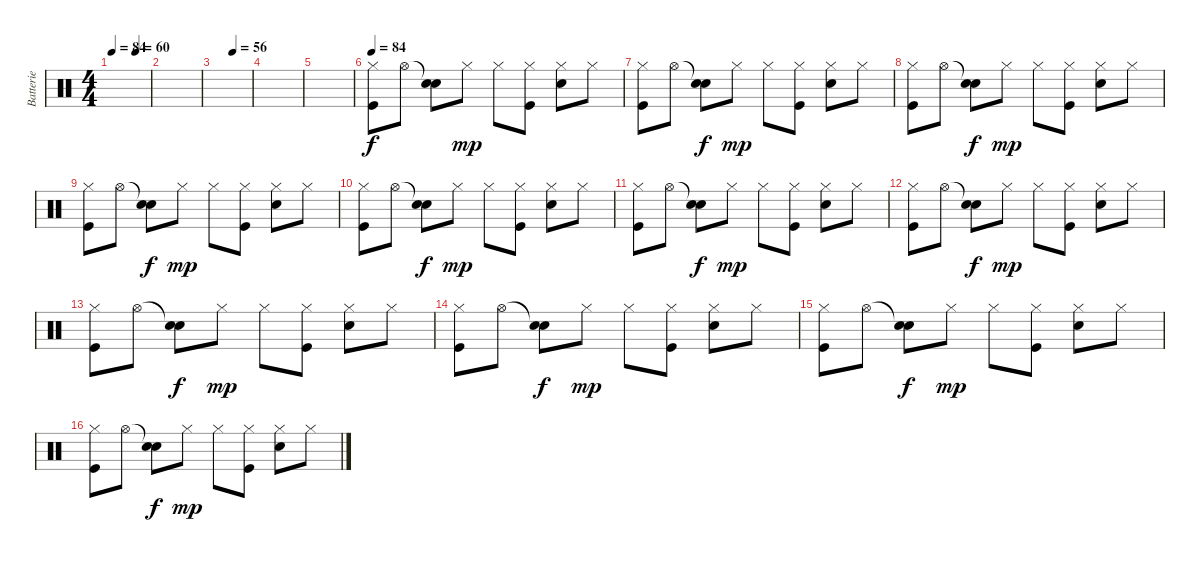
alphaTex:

\track ("Batterie" "Batterie") {instrument percussion}
\staff {score}
\articulation defaults
\ts (4 4)
\tempo 84
\tempo (60 0.625)
\tempo 84
\clef neutral
\ks c
|
|
\tempo (56 0.5)
|
|
|
\tempo 84
("Hi-Hat (closed)" "Kick (hit)").8 "Hi-Hat (open)".8 ("Snare (hit)"{t} "Snare (hit) 2").8{dy f} "Hi-Hat (closed)".8{dy mp} "Hi-Hat (closed)".8 ("Hi-Hat (closed)" "Kick (hit)").8 ("Hi-Hat (closed)" "Snare (hit) 2").8 "Hi-Hat (closed)".8 |
("Hi-Hat (closed)" "Kick (hit)").8 "Hi-Hat (open)".8 ("Snare (hit)"{t} "Snare (hit) 2").8{dy f} "Hi-Hat (closed)".8{dy mp} "Hi-Hat (closed)".8 ("Hi-Hat (closed)" "Kick (hit)").8 ("Hi-Hat (closed)" "Snare (hit) 2").8 "Hi-Hat (closed)".8 |
("Hi-Hat (closed)" "Kick (hit)").8 "Hi-Hat (open)".8 ("Snare (hit)"{t} "Snare (hit) 2").8{dy f} "Hi-Hat (closed)".8{dy mp} "Hi-Hat (closed)".8 ("Hi-Hat (closed)" "Kick (hit)").8 ("Hi-Hat (closed)" "Snare (hit) 2").8 "Hi-Hat (closed)".8 |
("Hi-Hat (closed)" "Kick (hit)").8 "Hi-Hat (open)".8 ("Snare (hit)"{t} "Snare (hit) 2").8{dy f} "Hi-Hat (closed)".8{dy mp} "Hi-Hat (closed)".8 ("Hi-Hat (closed)" "Kick (hit)").8 ("Hi-Hat (closed)" "Snare (hit) 2").8 "Hi-Hat (closed)".8 |
("Hi-Hat (closed)" "Kick (hit)").8 "Hi-Hat (open)".8 ("Snare (hit)"{t} "Snare (hit) 2").8{dy f} "Hi-Hat (closed)".8{dy mp} "Hi-Hat (closed)".8 ("Hi-Hat (closed)" "Kick (hit)").8 ("Hi-Hat (closed)" "Snare (hit) 2").8 "Hi-Hat (closed)".8 |
("Hi-Hat (closed)" "Kick (hit)").8 "Hi-Hat (open)".8 ("Snare (hit)"{t} "Snare (hit) 2").8{dy f} "Hi-Hat (closed)".8{dy mp} "Hi-Hat (closed)".8 ("Hi-Hat (closed)" "Kick (hit)").8 ("Hi-Hat (closed)" "Snare (hit) 2").8 "Hi-Hat (closed)".8 |
("Hi-Hat (closed)" "Kick (hit)").8 "Hi-Hat (open)".8 ("Snare (hit)"{t} "Snare (hit) 2").8{dy f} "Hi-Hat (closed)".8{dy mp} "Hi-Hat (closed)".8 ("Hi-Hat (closed)" "Kick (hit)").8 ("Hi-Hat (closed)" "Snare (hit) 2").8 "Hi-Hat (closed)".8 |
("Hi-Hat (closed)" "Kick (hit)").8 "Hi-Hat (open)".8 ("Snare (hit)"{t} "Snare (hit) 2").8{dy f} "Hi-Hat (closed)".8{dy mp} "Hi-Hat (closed)".8 ("Hi-Hat (closed)" "Kick (hit)").8 ("Hi-Hat (closed)" "Snare (hit) 2").8 "Hi-Hat (closed)".8 |
("Hi-Hat (closed)" "Kick (hit)").8 "Hi-Hat (open)".8 ("Snare (hit)"{t} "Snare (hit) 2").8{dy f} "Hi-Hat (closed)".8{dy mp} "Hi-Hat (closed)".8 ("Hi-Hat (closed)" "Kick (hit)").8 ("Hi-Hat (closed)" "Snare (hit) 2").8 "Hi-Hat (closed)".8 |
("Hi-Hat (closed)" "Kick (hit)").8 "Hi-Hat (open)".8 ("Snare (hit)"{t} "Snare (hit) 2").8{dy f} "Hi-Hat (closed)".8{dy mp} "Hi-Hat (closed)".8 ("Hi-Hat (closed)" "Kick (hit)").8 ("Hi-Hat (closed)" "Snare (hit) 2").8 "Hi-Hat (closed)".8 |
("Hi-Hat (closed)" "Kick (hit)").8 "Hi-Hat (open)".8 ("Snare (hit)"{t} "Snare (hit) 2").8{dy f} "Hi-Hat (closed)".8{dy mp} "Hi-Hat (closed)".8 ("Hi-Hat (closed)" "Kick (hit)").8 ("Hi-Hat (closed)" "Snare (hit) 2").8 "Hi-Hat (closed)".8
